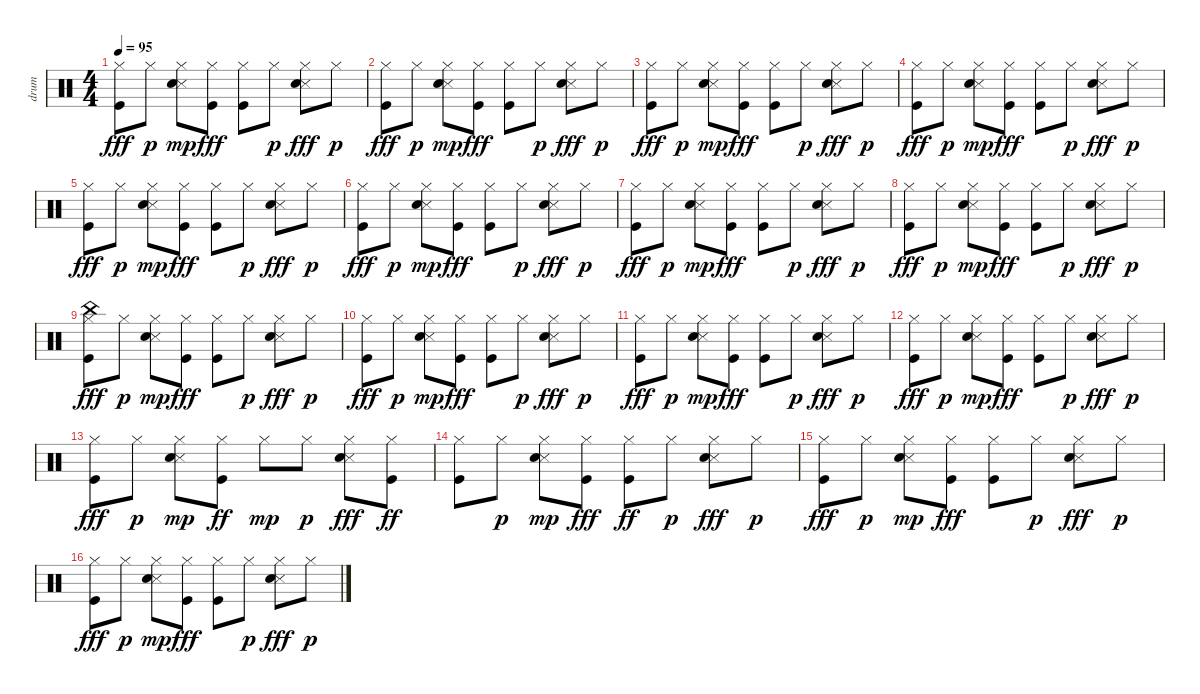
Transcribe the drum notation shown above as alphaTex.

\track ("drum" "drum") {instrument percussion}
\staff {score}
\articulation defaults
\ts (4 4)
\tempo 95
\clef neutral
\ks c
("Hi-Hat (closed)" "Kick (hit)").8{dy fff} "Hi-Hat (closed)".8{dy p} ("Hi-Hat (closed)" "Snare (side stick) 3" "Snare (hit) 2").8{dy mp} ("Hi-Hat (closed)" "Kick (hit)").8{dy fff} ("Hi-Hat (closed)" "Kick (hit)").8 "Hi-Hat (closed)".8{dy p} ("Hi-Hat (closed)" "Snare (side stick) 3" "Snare (hit) 2").8{dy fff} "Hi-Hat (closed)".8{dy p} |
("Hi-Hat (closed)" "Kick (hit)").8{dy fff} "Hi-Hat (closed)".8{dy p} ("Hi-Hat (closed)" "Snare (side stick) 3" "Snare (hit) 2").8{dy mp} ("Hi-Hat (closed)" "Kick (hit)").8{dy fff} ("Hi-Hat (closed)" "Kick (hit)").8 "Hi-Hat (closed)".8{dy p} ("Hi-Hat (closed)" "Snare (side stick) 3" "Snare (hit) 2").8{dy fff} "Hi-Hat (closed)".8{dy p} |
("Hi-Hat (closed)" "Kick (hit)").8{dy fff} "Hi-Hat (closed)".8{dy p} ("Hi-Hat (closed)" "Snare (side stick) 3" "Snare (hit) 2").8{dy mp} ("Hi-Hat (closed)" "Kick (hit)").8{dy fff} ("Hi-Hat (closed)" "Kick (hit)").8 "Hi-Hat (closed)".8{dy p} ("Hi-Hat (closed)" "Snare (side stick) 3" "Snare (hit) 2").8{dy fff} "Hi-Hat (closed)".8{dy p} |
("Hi-Hat (closed)" "Kick (hit)").8{dy fff} "Hi-Hat (closed)".8{dy p} ("Hi-Hat (closed)" "Snare (side stick) 3" "Snare (hit) 2").8{dy mp} ("Hi-Hat (closed)" "Kick (hit)").8{dy fff} ("Hi-Hat (closed)" "Kick (hit)").8 "Hi-Hat (closed)".8{dy p} ("Hi-Hat (closed)" "Snare (side stick) 3" "Snare (hit) 2").8{dy fff} "Hi-Hat (closed)".8{dy p} |
("Hi-Hat (closed)" "Kick (hit)").8{dy fff} "Hi-Hat (closed)".8{dy p} ("Hi-Hat (closed)" "Snare (side stick) 3" "Snare (hit) 2").8{dy mp} ("Hi-Hat (closed)" "Kick (hit)").8{dy fff} ("Hi-Hat (closed)" "Kick (hit)").8 "Hi-Hat (closed)".8{dy p} ("Hi-Hat (closed)" "Snare (side stick) 3" "Snare (hit) 2").8{dy fff} "Hi-Hat (closed)".8{dy p} |
("Hi-Hat (closed)" "Kick (hit)").8{dy fff} "Hi-Hat (closed)".8{dy p} ("Hi-Hat (closed)" "Snare (side stick) 3" "Snare (hit) 2").8{dy mp} ("Hi-Hat (closed)" "Kick (hit)").8{dy fff} ("Hi-Hat (closed)" "Kick (hit)").8 "Hi-Hat (closed)".8{dy p} ("Hi-Hat (closed)" "Snare (side stick) 3" "Snare (hit) 2").8{dy fff} "Hi-Hat (closed)".8{dy p} |
("Hi-Hat (closed)" "Kick (hit)").8{dy fff} "Hi-Hat (closed)".8{dy p} ("Hi-Hat (closed)" "Snare (side stick) 3" "Snare (hit) 2").8{dy mp} ("Hi-Hat (closed)" "Kick (hit)").8{dy fff} ("Hi-Hat (closed)" "Kick (hit)").8 "Hi-Hat (closed)".8{dy p} ("Hi-Hat (closed)" "Snare (side stick) 3" "Snare (hit) 2").8{dy fff} "Hi-Hat (closed)".8{dy p} |
("Hi-Hat (closed)" "Kick (hit)").8{dy fff} "Hi-Hat (closed)".8{dy p} ("Hi-Hat (closed)" "Snare (side stick) 3" "Snare (hit) 2").8{dy mp} ("Hi-Hat (closed)" "Kick (hit)").8{dy fff} ("Hi-Hat (closed)" "Kick (hit)").8 "Hi-Hat (closed)".8{dy p} ("Hi-Hat (closed)" "Snare (side stick) 3" "Snare (hit) 2").8{dy fff} "Hi-Hat (closed)".8{dy p} |
("China (hit)" "Hi-Hat (closed)" "Kick (hit)").8{dy fff} "Hi-Hat (closed)".8{dy p} ("Hi-Hat (closed)" "Snare (side stick) 3" "Snare (hit) 2").8{dy mp} ("Hi-Hat (closed)" "Kick (hit)").8{dy fff} ("Hi-Hat (closed)" "Kick (hit)").8 "Hi-Hat (closed)".8{dy p} ("Hi-Hat (closed)" "Snare (side stick) 3" "Snare (hit) 2").8{dy fff} "Hi-Hat (closed)".8{dy p} |
("Hi-Hat (closed)" "Kick (hit)").8{dy fff} "Hi-Hat (closed)".8{dy p} ("Hi-Hat (closed)" "Snare (side stick) 3" "Snare (hit) 2").8{dy mp} ("Hi-Hat (closed)" "Kick (hit)").8{dy fff} ("Hi-Hat (closed)" "Kick (hit)").8 "Hi-Hat (closed)".8{dy p} ("Hi-Hat (closed)" "Snare (side stick) 3" "Snare (hit) 2").8{dy fff} "Hi-Hat (closed)".8{dy p} |
("Hi-Hat (closed)" "Kick (hit)").8{dy fff} "Hi-Hat (closed)".8{dy p} ("Hi-Hat (closed)" "Snare (side stick) 3" "Snare (hit) 2").8{dy mp} ("Hi-Hat (closed)" "Kick (hit)").8{dy fff} ("Hi-Hat (closed)" "Kick (hit)").8 "Hi-Hat (closed)".8{dy p} ("Hi-Hat (closed)" "Snare (side stick) 3" "Snare (hit) 2").8{dy fff} "Hi-Hat (closed)".8{dy p} |
("Hi-Hat (closed)" "Kick (hit)").8{dy fff} "Hi-Hat (closed)".8{dy p} ("Hi-Hat (closed)" "Snare (side stick) 3" "Snare (hit) 2").8{dy mp} ("Hi-Hat (closed)" "Kick (hit)").8{dy fff} ("Hi-Hat (closed)" "Kick (hit)").8 "Hi-Hat (closed)".8{dy p} ("Hi-Hat (closed)" "Snare (side stick) 3" "Snare (hit) 2").8{dy fff} "Hi-Hat (closed)".8{dy p} |
("Hi-Hat (closed)" "Kick (hit)").8{dy fff} "Hi-Hat (closed)".8{dy p} ("Hi-Hat (closed)" "Snare (side stick) 3" "Snare (hit) 2").8{dy mp} ("Hi-Hat (closed)" "Kick (hit)").8{dy ff} "Hi-Hat (closed)".8{dy mp} "Hi-Hat (closed)".8{dy p} ("Hi-Hat (closed)" "Snare (side stick) 3" "Snare (hit) 2").8{dy fff} ("Hi-Hat (closed)" "Kick (hit)").8{dy ff} |
("Hi-Hat (closed)" "Kick (hit)").8 "Hi-Hat (closed)".8{dy p} ("Hi-Hat (closed)" "Snare (side stick) 3" "Snare (hit) 2").8{dy mp} ("Hi-Hat (closed)" "Kick (hit)").8{dy fff} ("Hi-Hat (closed)" "Kick (hit)").8{dy ff} "Hi-Hat (closed)".8{dy p} ("Hi-Hat (closed)" "Snare (side stick) 3" "Snare (hit) 2").8{dy fff} "Hi-Hat (closed)".8{dy p} |
("Hi-Hat (closed)" "Kick (hit)").8{dy fff} "Hi-Hat (closed)".8{dy p} ("Hi-Hat (closed)" "Snare (side stick) 3" "Snare (hit) 2").8{dy mp} ("Hi-Hat (closed)" "Kick (hit)").8{dy fff} ("Hi-Hat (closed)" "Kick (hit)").8 "Hi-Hat (closed)".8{dy p} ("Hi-Hat (closed)" "Snare (side stick) 3" "Snare (hit) 2").8{dy fff} "Hi-Hat (closed)".8{dy p} |
("Hi-Hat (closed)" "Kick (hit)").8{dy fff} "Hi-Hat (closed)".8{dy p} ("Hi-Hat (closed)" "Snare (side stick) 3" "Snare (hit) 2").8{dy mp} ("Hi-Hat (closed)" "Kick (hit)").8{dy fff} ("Hi-Hat (closed)" "Kick (hit)").8 "Hi-Hat (closed)".8{dy p} ("Hi-Hat (closed)" "Snare (side stick) 3" "Snare (hit) 2").8{dy fff} "Hi-Hat (closed)".8{dy p}
